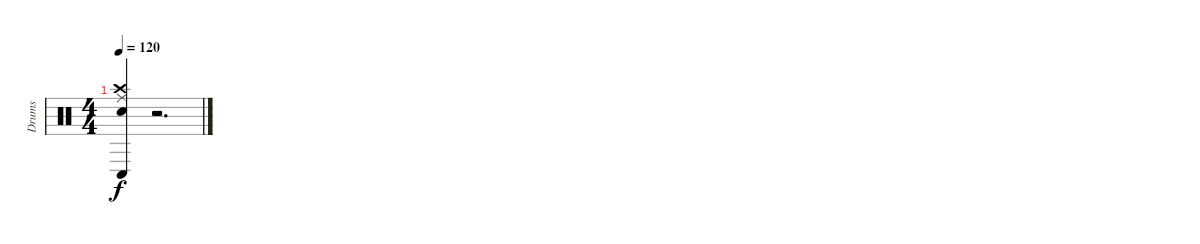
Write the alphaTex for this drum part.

\track ("Drums" "Drums") {instrument percussion}
\staff {score}
\articulation defaults
\ts (4 4)
\tempo 120
\clef neutral
\ks c
("Snare (hit) 2" "Ride (middle)" "Crash high (hit)" "Conga low (hit)").4{dy f} r.2{d}
